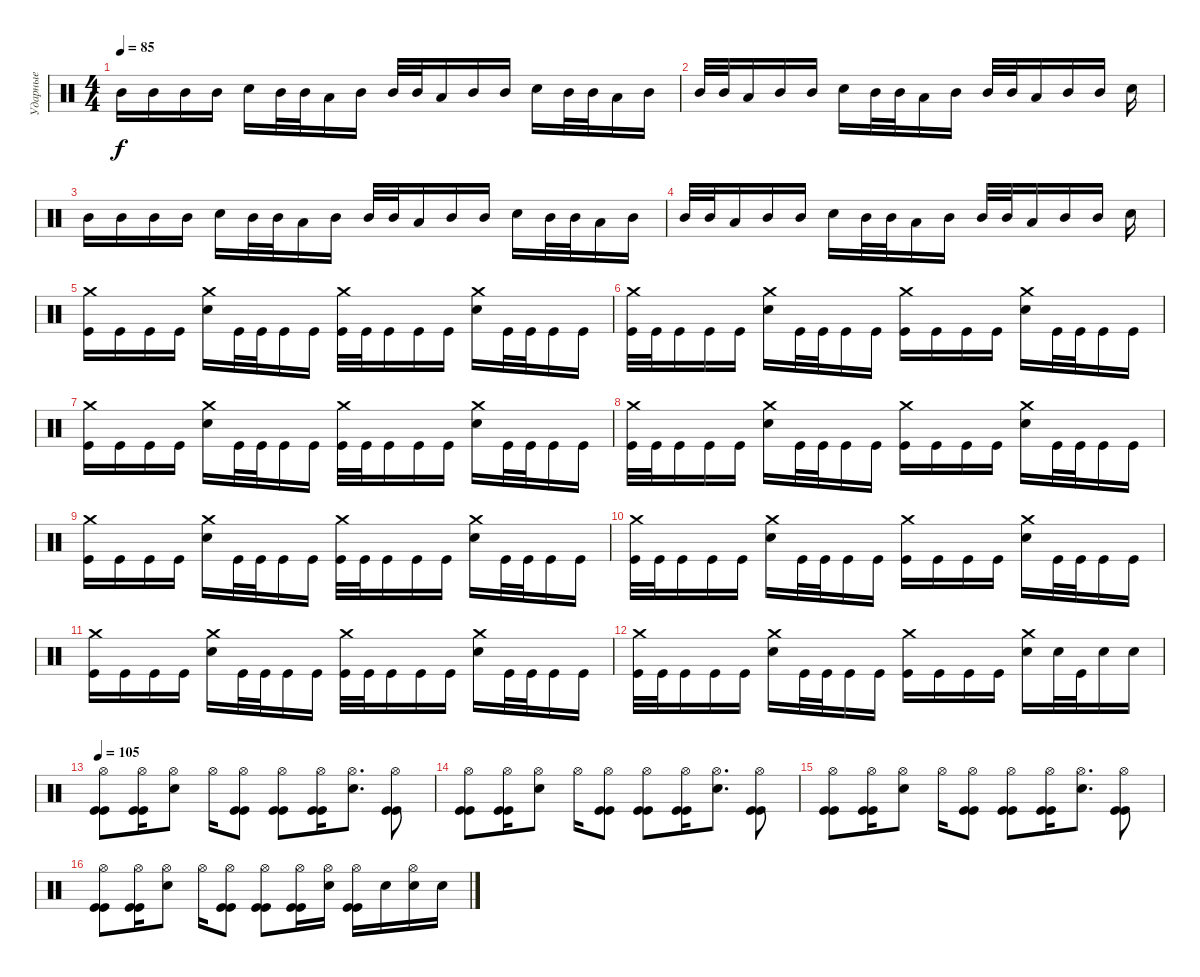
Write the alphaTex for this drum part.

\track ("Ударные" "Ударные") {instrument percussion}
\staff {score}
\articulation defaults
\ts (4 4)
\tempo 85
\clef neutral
\ks c "Mid Tom (hit)".16{dy f} "Mid Tom (hit)".16 "Mid Tom (hit)".16 "Mid Tom (hit)".16 "Electric Snare (hit)".16 "Mid Tom (hit)".32 "Mid Tom (hit)".32 "Low Tom (hit)".16 "Mid Tom (hit)".16 "Mid Tom (hit)".32 "Mid Tom (hit)".32 "Low Tom (hit)".16 "Mid Tom (hit)".16 "Mid Tom (hit)".16 "Electric Snare (hit)".16 "Mid Tom (hit)".32 "Mid Tom (hit)".32 "Low Tom (hit)".16 "Mid Tom (hit)".16
|
"Mid Tom (hit)".32 "Mid Tom (hit)".32 "Low Tom (hit)".16 "Mid Tom (hit)".16 "Mid Tom (hit)".16 "Electric Snare (hit)".16 "Mid Tom (hit)".32 "Mid Tom (hit)".32 "Low Tom (hit)".16 "Mid Tom (hit)".16 "Mid Tom (hit)".32 "Mid Tom (hit)".32 "Low Tom (hit)".16 "Mid Tom (hit)".16 "Mid Tom (hit)".16 "Electric Snare (hit)".16 |
"Mid Tom (hit)".16 "Mid Tom (hit)".16 "Mid Tom (hit)".16 "Mid Tom (hit)".16 "Electric Snare (hit)".16 "Mid Tom (hit)".32 "Mid Tom (hit)".32 "Low Tom (hit)".16 "Mid Tom (hit)".16 "Mid Tom (hit)".32 "Mid Tom (hit)".32 "Low Tom (hit)".16 "Mid Tom (hit)".16 "Mid Tom (hit)".16 "Electric Snare (hit)".16 "Mid Tom (hit)".32 "Mid Tom (hit)".32 "Low Tom (hit)".16 "Mid Tom (hit)".16 |
"Mid Tom (hit)".32 "Mid Tom (hit)".32 "Low Tom (hit)".16 "Mid Tom (hit)".16 "Mid Tom (hit)".16 "Electric Snare (hit)".16 "Mid Tom (hit)".32 "Mid Tom (hit)".32 "Low Tom (hit)".16 "Mid Tom (hit)".16 "Mid Tom (hit)".32 "Mid Tom (hit)".32 "Low Tom (hit)".16 "Mid Tom (hit)".16 "Mid Tom (hit)".16 "Electric Snare (hit)".16 |
("Crash medium (hit)" "Kick (hit)").16 "Kick (hit)".16 "Kick (hit)".16 "Kick (hit)".16 ("Crash medium (hit)" "Electric Snare (hit)").16 "Kick (hit)".32 "Kick (hit)".32 "Kick (hit)".16 "Kick (hit)".16 ("Crash medium (hit)" "Kick (hit)").32 "Kick (hit)".32 "Kick (hit)".16 "Kick (hit)".16 "Kick (hit)".16 ("Crash medium (hit)" "Electric Snare (hit)").16 "Kick (hit)".32 "Kick (hit)".32 "Kick (hit)".16 "Kick (hit)".16 |
("Crash medium (hit)" "Kick (hit)").32 "Kick (hit)".32 "Kick (hit)".16 "Kick (hit)".16 "Kick (hit)".16 ("Crash medium (hit)" "Electric Snare (hit)").16 "Kick (hit)".32 "Kick (hit)".32 "Kick (hit)".16 "Kick (hit)".16 ("Crash medium (hit)" "Kick (hit)").16 "Kick (hit)".16 "Kick (hit)".16 "Kick (hit)".16 ("Crash medium (hit)" "Electric Snare (hit)").16 "Kick (hit)".32 "Kick (hit)".32 "Kick (hit)".16 "Kick (hit)".16 |
("Crash medium (hit)" "Kick (hit)").16 "Kick (hit)".16 "Kick (hit)".16 "Kick (hit)".16 ("Crash medium (hit)" "Electric Snare (hit)").16 "Kick (hit)".32 "Kick (hit)".32 "Kick (hit)".16 "Kick (hit)".16 ("Crash medium (hit)" "Kick (hit)").32 "Kick (hit)".32 "Kick (hit)".16 "Kick (hit)".16 "Kick (hit)".16 ("Crash medium (hit)" "Electric Snare (hit)").16 "Kick (hit)".32 "Kick (hit)".32 "Kick (hit)".16 "Kick (hit)".16 |
("Crash medium (hit)" "Kick (hit)").32 "Kick (hit)".32 "Kick (hit)".16 "Kick (hit)".16 "Kick (hit)".16 ("Crash medium (hit)" "Electric Snare (hit)").16 "Kick (hit)".32 "Kick (hit)".32 "Kick (hit)".16 "Kick (hit)".16 ("Crash medium (hit)" "Kick (hit)").16 "Kick (hit)".16 "Kick (hit)".16 "Kick (hit)".16 ("Crash medium (hit)" "Electric Snare (hit)").16 "Kick (hit)".32 "Kick (hit)".32 "Kick (hit)".16 "Kick (hit)".16 |
("Crash medium (hit)" "Kick (hit)").16 "Kick (hit)".16 "Kick (hit)".16 "Kick (hit)".16 ("Crash medium (hit)" "Electric Snare (hit)").16 "Kick (hit)".32 "Kick (hit)".32 "Kick (hit)".16 "Kick (hit)".16 ("Crash medium (hit)" "Kick (hit)").32 "Kick (hit)".32 "Kick (hit)".16 "Kick (hit)".16 "Kick (hit)".16 ("Crash medium (hit)" "Electric Snare (hit)").16 "Kick (hit)".32 "Kick (hit)".32 "Kick (hit)".16 "Kick (hit)".16 |
("Crash medium (hit)" "Kick (hit)").32 "Kick (hit)".32 "Kick (hit)".16 "Kick (hit)".16 "Kick (hit)".16 ("Crash medium (hit)" "Electric Snare (hit)").16 "Kick (hit)".32 "Kick (hit)".32 "Kick (hit)".16 "Kick (hit)".16 ("Crash medium (hit)" "Kick (hit)").16 "Kick (hit)".16 "Kick (hit)".16 "Kick (hit)".16 ("Crash medium (hit)" "Electric Snare (hit)").16 "Kick (hit)".32 "Kick (hit)".32 "Kick (hit)".16 "Kick (hit)".16 |
("Crash medium (hit)" "Kick (hit)").16 "Kick (hit)".16 "Kick (hit)".16 "Kick (hit)".16 ("Crash medium (hit)" "Electric Snare (hit)").16 "Kick (hit)".32 "Kick (hit)".32 "Kick (hit)".16 "Kick (hit)".16 ("Crash medium (hit)" "Kick (hit)").32 "Kick (hit)".32 "Kick (hit)".16 "Kick (hit)".16 "Kick (hit)".16 ("Crash medium (hit)" "Electric Snare (hit)").16 "Kick (hit)".32 "Kick (hit)".32 "Kick (hit)".16 "Kick (hit)".16 |
("Crash medium (hit)" "Kick (hit)").32 "Kick (hit)".32 "Kick (hit)".16 "Kick (hit)".16 "Kick (hit)".16 ("Crash medium (hit)" "Electric Snare (hit)").16 "Kick (hit)".32 "Kick (hit)".32 "Kick (hit)".16 "Kick (hit)".16 ("Crash medium (hit)" "Kick (hit)").16 "Kick (hit)".16 "Kick (hit)".16 "Kick (hit)".16 ("Crash medium (hit)" "Electric Snare (hit)").16 "Electric Snare (hit)".32 "Kick (hit)".32 "Electric Snare (hit)".16 "Electric Snare (hit)".16 |
\tempo 105
("Hi-Hat (open)" "Kick (hit)" "Kick (hit)").8 ("Hi-Hat (open)" "Kick (hit)" "Kick (hit)").16 ("Hi-Hat (open)" "Electric Snare (hit)").8 "Hi-Hat (open)".16 ("Hi-Hat (open)" "Kick (hit)" "Kick (hit)").8 ("Hi-Hat (open)" "Kick (hit)" "Kick (hit)").8 ("Hi-Hat (open)" "Kick (hit)" "Kick (hit)").16 ("Hi-Hat (open)" "Electric Snare (hit)").8{d} ("Hi-Hat (open)" "Kick (hit)" "Kick (hit)").8 |
("Hi-Hat (open)" "Kick (hit)" "Kick (hit)").8 ("Hi-Hat (open)" "Kick (hit)" "Kick (hit)").16 ("Hi-Hat (open)" "Electric Snare (hit)").8 "Hi-Hat (open)".16 ("Hi-Hat (open)" "Kick (hit)" "Kick (hit)").8 ("Hi-Hat (open)" "Kick (hit)" "Kick (hit)").8 ("Hi-Hat (open)" "Kick (hit)" "Kick (hit)").16 ("Hi-Hat (open)" "Electric Snare (hit)").8{d} ("Hi-Hat (open)" "Kick (hit)" "Kick (hit)").8 |
("Hi-Hat (open)" "Kick (hit)" "Kick (hit)").8 ("Hi-Hat (open)" "Kick (hit)" "Kick (hit)").16 ("Hi-Hat (open)" "Electric Snare (hit)").8 "Hi-Hat (open)".16 ("Hi-Hat (open)" "Kick (hit)" "Kick (hit)").8 ("Hi-Hat (open)" "Kick (hit)" "Kick (hit)").8 ("Hi-Hat (open)" "Kick (hit)" "Kick (hit)").16 ("Hi-Hat (open)" "Electric Snare (hit)").8{d} ("Hi-Hat (open)" "Kick (hit)" "Kick (hit)").8 |
("Hi-Hat (open)" "Kick (hit)" "Kick (hit)").8 ("Hi-Hat (open)" "Kick (hit)" "Kick (hit)").16 ("Hi-Hat (open)" "Electric Snare (hit)").8 "Hi-Hat (open)".16 ("Hi-Hat (open)" "Kick (hit)" "Kick (hit)").8 ("Hi-Hat (open)" "Kick (hit)" "Kick (hit)").8 ("Hi-Hat (open)" "Kick (hit)" "Kick (hit)").16 ("Hi-Hat (open)" "Electric Snare (hit)").16 ("Hi-Hat (open)" "Kick (hit)" "Kick (hit)").16 "Electric Snare (hit)".16 ("Hi-Hat (open)" "Electric Snare (hit)").16 "Electric Snare (hit)".16
